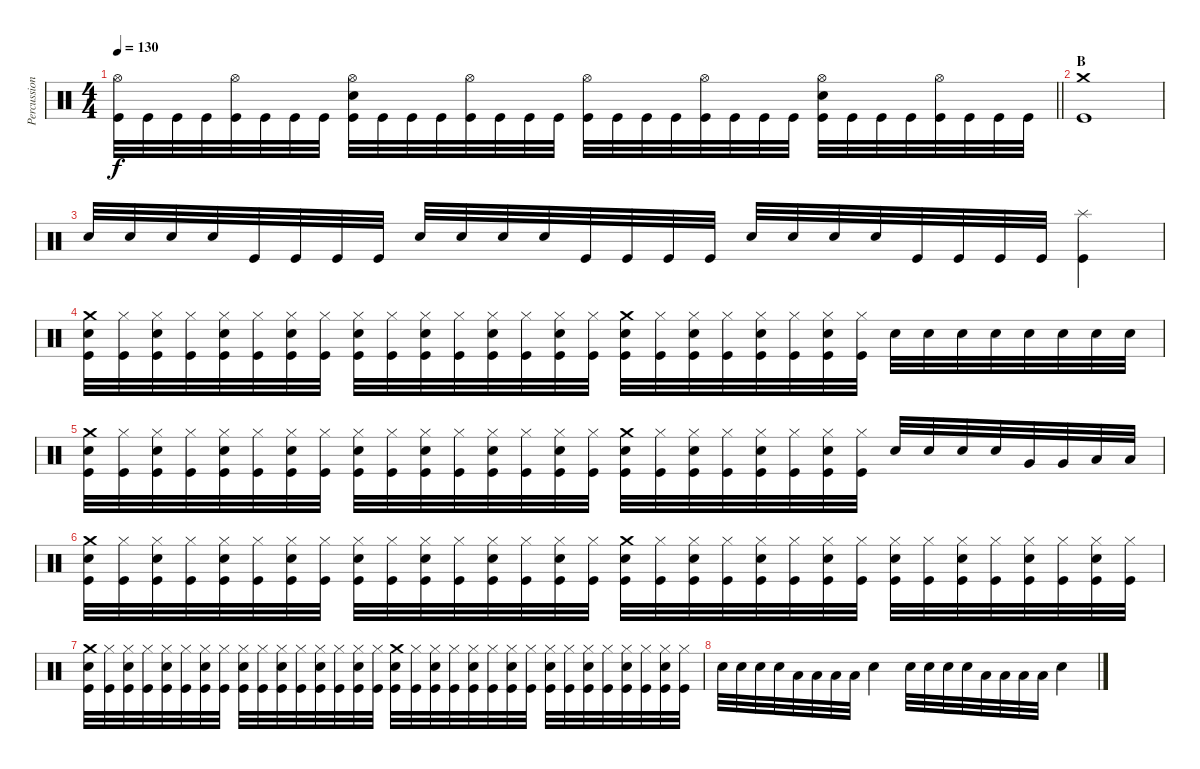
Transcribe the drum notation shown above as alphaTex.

\track ("Percussion" "Percussion") {instrument percussion}
\staff {score}
\articulation defaults
\ts (4 4)
\tempo 130
\clef neutral
\barLineRight lightlight
\ks c
("Kick (hit)" "Hi-Hat (open)").32{dy f} "Kick (hit)".32 "Kick (hit)".32 "Kick (hit)".32 ("Kick (hit)" "Hi-Hat (open)").32 "Kick (hit)".32 "Kick (hit)".32 "Kick (hit)".32 ("Kick (hit)" "Snare (hit) 2" "Hi-Hat (open)").32 "Kick (hit)".32 "Kick (hit)".32 "Kick (hit)".32 ("Kick (hit)" "Hi-Hat (open)").32 "Kick (hit)".32 "Kick (hit)".32 "Kick (hit)".32 ("Kick (hit)" "Hi-Hat (open)").32 "Kick (hit)".32 "Kick (hit)".32 "Kick (hit)".32 ("Kick (hit)" "Hi-Hat (open)").32 "Kick (hit)".32 "Kick (hit)".32 "Kick (hit)".32 ("Kick (hit)" "Snare (hit) 2" "Hi-Hat (open)").32 "Kick (hit)".32 "Kick (hit)".32 "Kick (hit)".32 ("Kick (hit)" "Hi-Hat (open)").32 "Kick (hit)".32 "Kick (hit)".32 "Kick (hit)".32 |
\section ("" "B")
("Kick (hit)" "Crash medium (hit)").1 |
"Snare (hit) 2".32 "Snare (hit) 2".32 "Snare (hit) 2".32 "Snare (hit) 2".32 "Kick (hit)".32 "Kick (hit)".32 "Kick (hit)".32 "Kick (hit)".32 "Snare (hit) 2".32 "Snare (hit) 2".32 "Snare (hit) 2".32 "Snare (hit) 2".32 "Kick (hit)".32 "Kick (hit)".32 "Kick (hit)".32 "Kick (hit)".32 "Snare (hit) 2".32 "Snare (hit) 2".32 "Snare (hit) 2".32 "Snare (hit) 2".32 "Kick (hit)".32 "Kick (hit)".32 "Kick (hit)".32 "Kick (hit)".32 ("Kick (hit)" "Splash (hit)").4 |
("Kick (hit)" "Snare (hit) 2" "Crash medium (hit)").32 ("Kick (hit)" "Hi-Hat (closed)").32 ("Kick (hit)" "Snare (hit) 2" "Hi-Hat (closed)").32 ("Kick (hit)" "Hi-Hat (closed)").32 ("Kick (hit)" "Snare (hit) 2" "Hi-Hat (closed)").32 ("Kick (hit)" "Hi-Hat (closed)").32 ("Kick (hit)" "Snare (hit) 2" "Hi-Hat (closed)").32 ("Kick (hit)" "Hi-Hat (closed)").32 ("Kick (hit)" "Snare (hit) 2" "Hi-Hat (closed)").32 ("Kick (hit)" "Hi-Hat (closed)").32 ("Kick (hit)" "Snare (hit) 2" "Hi-Hat (closed)").32 ("Kick (hit)" "Hi-Hat (closed)").32 ("Kick (hit)" "Snare (hit) 2" "Hi-Hat (closed)").32 ("Kick (hit)" "Hi-Hat (closed)").32 ("Kick (hit)" "Snare (hit) 2" "Hi-Hat (closed)").32 ("Kick (hit)" "Hi-Hat (closed)").32 ("Kick (hit)" "Snare (hit) 2" "Crash medium (hit)").32 ("Kick (hit)" "Hi-Hat (closed)").32 ("Kick (hit)" "Snare (hit) 2" "Hi-Hat (closed)").32 ("Kick (hit)" "Hi-Hat (closed)").32 ("Kick (hit)" "Snare (hit) 2" "Hi-Hat (closed)").32 ("Kick (hit)" "Hi-Hat (closed)").32 ("Kick (hit)" "Snare (hit) 2" "Hi-Hat (closed)").32 ("Kick (hit)" "Hi-Hat (closed)").32 "Snare (hit) 2".32 "Snare (hit) 2".32 "Snare (hit) 2".32 "Snare (hit) 2".32 "Snare (hit) 2".32 "Snare (hit) 2".32 "Snare (hit) 2".32 "Snare (hit) 2".32 |
("Kick (hit)" "Snare (hit) 2" "Crash medium (hit)").32 ("Kick (hit)" "Hi-Hat (closed)").32 ("Kick (hit)" "Snare (hit) 2" "Hi-Hat (closed)").32 ("Kick (hit)" "Hi-Hat (closed)").32 ("Kick (hit)" "Snare (hit) 2" "Hi-Hat (closed)").32 ("Kick (hit)" "Hi-Hat (closed)").32 ("Kick (hit)" "Snare (hit) 2" "Hi-Hat (closed)").32 ("Kick (hit)" "Hi-Hat (closed)").32 ("Kick (hit)" "Snare (hit) 2" "Hi-Hat (closed)").32 ("Kick (hit)" "Hi-Hat (closed)").32 ("Kick (hit)" "Snare (hit) 2" "Hi-Hat (closed)").32 ("Kick (hit)" "Hi-Hat (closed)").32 ("Kick (hit)" "Snare (hit) 2" "Hi-Hat (closed)").32 ("Kick (hit)" "Hi-Hat (closed)").32 ("Kick (hit)" "Snare (hit) 2" "Hi-Hat (closed)").32 ("Kick (hit)" "Hi-Hat (closed)").32 ("Kick (hit)" "Snare (hit) 2" "Crash medium (hit)").32 ("Kick (hit)" "Hi-Hat (closed)").32 ("Kick (hit)" "Snare (hit) 2" "Hi-Hat (closed)").32 ("Kick (hit)" "Hi-Hat (closed)").32 ("Kick (hit)" "Snare (hit) 2" "Hi-Hat (closed)").32 ("Kick (hit)" "Hi-Hat (closed)").32 ("Kick (hit)" "Snare (hit) 2" "Hi-Hat (closed)").32 ("Kick (hit)" "Hi-Hat (closed)").32 "Snare (hit) 2".32 "Snare (hit) 2".32 "Snare (hit) 2".32 "Snare (hit) 2".32 "Very Low Tom (hit)".32 "Very Low Tom (hit)".32 "Low Floor Tom (hit)".32 "Low Floor Tom (hit)".32 |
("Kick (hit)" "Snare (hit) 2" "Crash medium (hit)").32 ("Kick (hit)" "Hi-Hat (closed)").32 ("Kick (hit)" "Snare (hit) 2" "Hi-Hat (closed)").32 ("Kick (hit)" "Hi-Hat (closed)").32 ("Kick (hit)" "Snare (hit) 2" "Hi-Hat (closed)").32 ("Kick (hit)" "Hi-Hat (closed)").32 ("Kick (hit)" "Snare (hit) 2" "Hi-Hat (closed)").32 ("Kick (hit)" "Hi-Hat (closed)").32 ("Kick (hit)" "Snare (hit) 2" "Hi-Hat (closed)").32 ("Kick (hit)" "Hi-Hat (closed)").32 ("Kick (hit)" "Snare (hit) 2" "Hi-Hat (closed)").32 ("Kick (hit)" "Hi-Hat (closed)").32 ("Kick (hit)" "Snare (hit) 2" "Hi-Hat (closed)").32 ("Kick (hit)" "Hi-Hat (closed)").32 ("Kick (hit)" "Snare (hit) 2" "Hi-Hat (closed)").32 ("Kick (hit)" "Hi-Hat (closed)").32 ("Kick (hit)" "Snare (hit) 2" "Crash medium (hit)").32 ("Kick (hit)" "Hi-Hat (closed)").32 ("Kick (hit)" "Snare (hit) 2" "Hi-Hat (closed)").32 ("Kick (hit)" "Hi-Hat (closed)").32 ("Kick (hit)" "Snare (hit) 2" "Hi-Hat (closed)").32 ("Kick (hit)" "Hi-Hat (closed)").32 ("Kick (hit)" "Snare (hit) 2" "Hi-Hat (closed)").32 ("Kick (hit)" "Hi-Hat (closed)").32 ("Kick (hit)" "Snare (hit) 2" "Hi-Hat (closed)").32 ("Kick (hit)" "Hi-Hat (closed)").32 ("Kick (hit)" "Snare (hit) 2" "Hi-Hat (closed)").32 ("Kick (hit)" "Hi-Hat (closed)").32 ("Kick (hit)" "Snare (hit) 2" "Hi-Hat (closed)").32 ("Kick (hit)" "Hi-Hat (closed)").32 ("Kick (hit)" "Snare (hit) 2" "Hi-Hat (closed)").32 ("Kick (hit)" "Hi-Hat (closed)").32 |
("Kick (hit)" "Snare (hit) 2" "Crash medium (hit)").32 ("Kick (hit)" "Hi-Hat (closed)").32 ("Kick (hit)" "Snare (hit) 2" "Hi-Hat (closed)").32 ("Kick (hit)" "Hi-Hat (closed)").32 ("Kick (hit)" "Snare (hit) 2" "Hi-Hat (closed)").32 ("Kick (hit)" "Hi-Hat (closed)").32 ("Kick (hit)" "Snare (hit) 2" "Hi-Hat (closed)").32 ("Kick (hit)" "Hi-Hat (closed)").32 ("Kick (hit)" "Snare (hit) 2" "Hi-Hat (closed)").32 ("Kick (hit)" "Hi-Hat (closed)").32 ("Kick (hit)" "Snare (hit) 2" "Hi-Hat (closed)").32 ("Kick (hit)" "Hi-Hat (closed)").32 ("Kick (hit)" "Snare (hit) 2" "Hi-Hat (closed)").32 ("Kick (hit)" "Hi-Hat (closed)").32 ("Kick (hit)" "Snare (hit) 2" "Hi-Hat (closed)").32 ("Kick (hit)" "Hi-Hat (closed)").32 ("Kick (hit)" "Snare (hit) 2" "Crash medium (hit)").32 ("Kick (hit)" "Hi-Hat (closed)").32 ("Kick (hit)" "Snare (hit) 2" "Hi-Hat (closed)").32 ("Kick (hit)" "Hi-Hat (closed)").32 ("Kick (hit)" "Snare (hit) 2" "Hi-Hat (closed)").32 ("Kick (hit)" "Hi-Hat (closed)").32 ("Kick (hit)" "Snare (hit) 2" "Hi-Hat (closed)").32 ("Kick (hit)" "Hi-Hat (closed)").32 ("Kick (hit)" "Snare (hit) 2" "Hi-Hat (closed)").32 ("Kick (hit)" "Hi-Hat (closed)").32 ("Kick (hit)" "Snare (hit) 2" "Hi-Hat (closed)").32 ("Kick (hit)" "Hi-Hat (closed)").32 ("Kick (hit)" "Snare (hit) 2" "Hi-Hat (closed)").32 ("Kick (hit)" "Hi-Hat (closed)").32 ("Kick (hit)" "Snare (hit) 2" "Hi-Hat (closed)").32 ("Kick (hit)" "Hi-Hat (closed)").32 |
"Snare (hit) 2".32 "Snare (hit) 2".32 "Snare (hit) 2".32 "Snare (hit) 2".32 "Low Floor Tom (hit)".32 "Low Floor Tom (hit)".32 "Low Floor Tom (hit)".32 "Low Floor Tom (hit)".32 "Snare (hit) 2".4 "Snare (hit) 2".32 "Snare (hit) 2".32 "Snare (hit) 2".32 "Snare (hit) 2".32 "Low Floor Tom (hit)".32 "Low Floor Tom (hit)".32 "Low Floor Tom (hit)".32 "Low Floor Tom (hit)".32 "Snare (hit) 2".4
